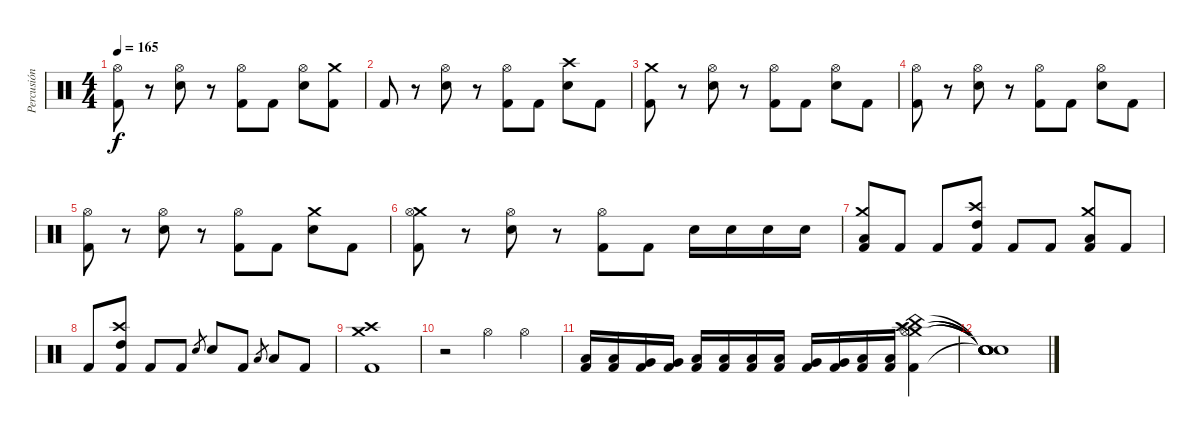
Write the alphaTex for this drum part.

\track ("Percusión" "Percusión") {instrument percussion}
\staff {score}
\articulation defaults
\ts (4 4)
\tempo 165
\clef neutral
\ks c
("Hi-Hat (open)" "Kick (hit) 2").8{dy f} r.8 ("Hi-Hat (open)" "Electric Snare (hit)").8 r.8 ("Hi-Hat (open)" "Kick (hit) 2").8 "Kick (hit) 2".8 ("Hi-Hat (open)" "Electric Snare (hit)").8 ("Crash medium (hit)" "Kick (hit) 2").8 |
"Kick (hit) 2".8 r.8 ("Hi-Hat (open)" "Electric Snare (hit)").8 r.8 ("Hi-Hat (open)" "Kick (hit) 2").8 "Kick (hit) 2".8 ("Crash high (hit)" "Electric Snare (hit)").8 "Kick (hit) 2".8 |
("Crash medium (hit)" "Kick (hit) 2").8 r.8 ("Hi-Hat (open)" "Electric Snare (hit)").8 r.8 ("Hi-Hat (open)" "Kick (hit) 2").8 "Kick (hit) 2".8 ("Hi-Hat (open)" "Electric Snare (hit)").8 "Kick (hit) 2".8 |
("Hi-Hat (open)" "Kick (hit) 2").8 r.8 ("Hi-Hat (open)" "Electric Snare (hit)").8 r.8 ("Hi-Hat (open)" "Kick (hit) 2").8 "Kick (hit) 2".8 ("Hi-Hat (open)" "Electric Snare (hit)").8 "Kick (hit) 2".8 |
("Hi-Hat (open)" "Kick (hit) 2").8 r.8 ("Hi-Hat (open)" "Electric Snare (hit)").8 r.8 ("Hi-Hat (open)" "Kick (hit) 2").8 "Kick (hit) 2".8 ("Crash medium (hit)" "Electric Snare (hit)").8 "Kick (hit) 2".8 |
("Crash medium (hit)" "Hi-Hat (open)" "Kick (hit) 2").8 r.8 ("Hi-Hat (open)" "Electric Snare (hit)").8 r.8 ("Hi-Hat (open)" "Kick (hit) 2").8 "Kick (hit) 2".8 "Electric Snare (hit)".16 "Electric Snare (hit)".16 "Electric Snare (hit)".16 "Electric Snare (hit)".16 |
("Crash medium (hit)" "Low Tom (hit)" "Kick (hit) 2").8 "Kick (hit) 2".8 "Kick (hit) 2".8 ("Crash high (hit)" "High Tom (hit)" "Kick (hit) 2").8 "Kick (hit) 2".8 "Kick (hit) 2".8 ("Crash medium (hit)" "Low Tom (hit)" "Kick (hit) 2").8 "Kick (hit) 2".8 |
"Kick (hit) 2".8 ("Crash high (hit)" "High Tom (hit)" "Kick (hit) 2").8 "Kick (hit) 2".8 "Kick (hit) 2".8 "Electric Snare (hit)".8{gr} "Electric Snare (hit)".8 "Kick (hit) 2".8 "Low Tom (hit)".8{gr} "Low Tom (hit)".8 "Kick (hit) 2".8 |
("Crash medium (hit)" "Crash high (hit)" "Kick (hit) 2").1 |
r.2 "Hi-Hat (open)".4 "Hi-Hat (open)".4 |
("Low Tom (hit)" "Kick (hit) 2").16 ("Low Tom (hit)" "Kick (hit) 2").16 ("Very Low Tom (hit)" "Kick (hit) 2").16 ("Very Low Tom (hit)" "Kick (hit) 2").16 ("Low Floor Tom (hit)" "Kick (hit) 2").16 ("Low Floor Tom (hit)" "Kick (hit) 2").16 ("Low Tom (hit)" "Kick (hit) 2").16 ("Low Tom (hit)" "Kick (hit) 2").16 ("Very Low Tom (hit)" "Kick (hit) 2").16 ("Very Low Tom (hit)" "Kick (hit) 2").16 ("Low Floor Tom (hit)" "Kick (hit) 2").16 ("Low Floor Tom (hit)" "Kick (hit) 2").16 ("Crash medium (hit)" "Crash high (hit)" "Hi-Hat (open)" "China (hit)" "Splash (hit)" "Kick (hit) 2").4 |
("Snare (hit)"{t} "Snare (hit)"{t} "Snare (hit)"{t} "Snare (hit)"{t} "Snare (hit)"{t} "Snare (hit)"{t}).1
